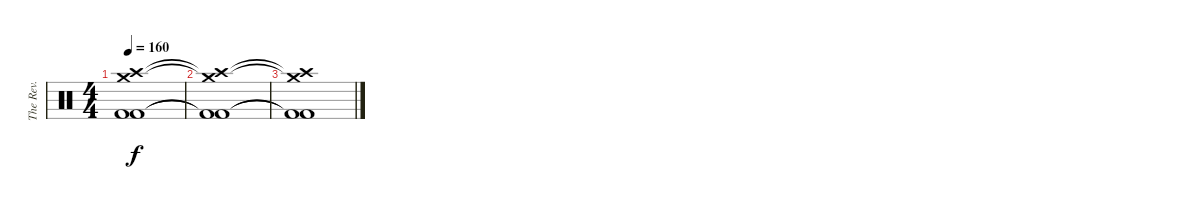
\track ("The Rev." "The Rev.") {instrument percussion}
\staff {score}
\articulation defaults
\ts (4 4)
\tempo 160
\clef neutral
\ks c
("Crash high (hit)"{t} "Crash medium (hit)"{t} "Kick (hit) 2"{t} "Kick (hit) 2"{t}).1{dy f} |
("Crash high (hit)"{t} "Crash medium (hit)"{t} "Kick (hit) 2"{t} "Kick (hit) 2"{t}).1 |
("Crash high (hit)"{t} "Crash medium (hit)"{t} "Kick (hit) 2"{t} "Kick (hit) 2"{t}).1
